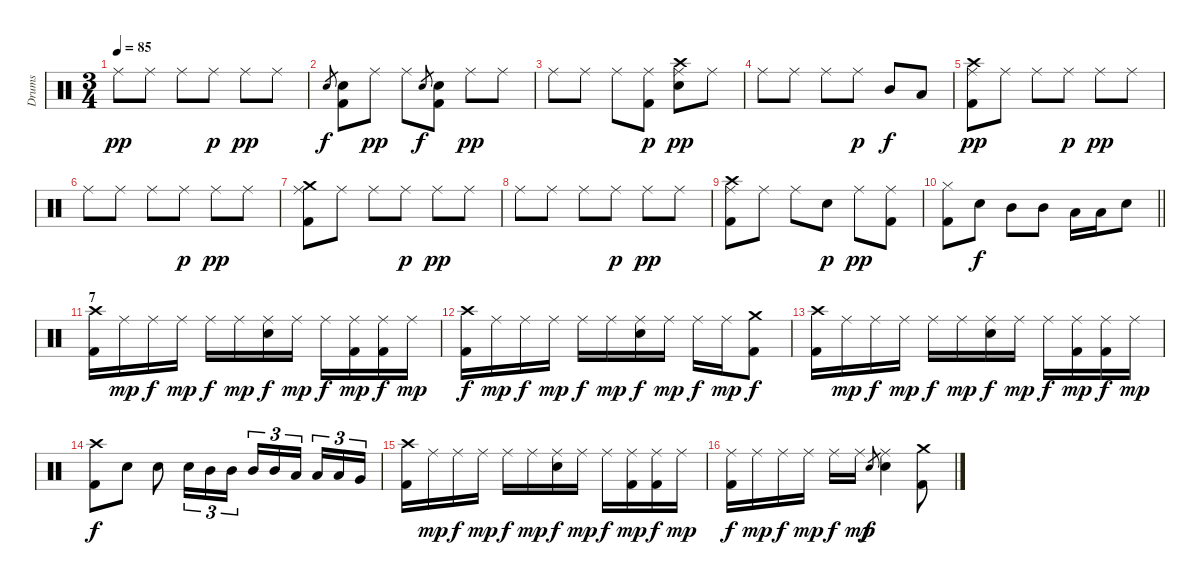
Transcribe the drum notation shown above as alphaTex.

\track ("Drums" "Drums") {instrument percussion}
\staff {score}
\articulation defaults
\ts (3 4)
\tempo 85
\clef neutral
\ks c "Ride (middle)".8{dy pp} "Ride (middle)".8 "Ride (middle)".8 "Ride (middle)".8{dy p} "Ride (middle)".8{dy pp} "Ride (middle)".8
|
"Electric Snare (hit)".8{gr dy f} ("Electric Snare (hit)" "Kick (hit) 2").8 "Ride (middle)".8{dy pp} "Ride (middle)".8 "Electric Snare (hit)".8{gr dy f} ("Electric Snare (hit)" "Kick (hit) 2").8 "Ride (middle)".8{dy pp} "Ride (middle)".8 |
"Ride (middle)".8 "Ride (middle)".8 "Ride (middle)".8 ("Ride (middle)" "Kick (hit) 2").8{dy p} ("Crash high (hit)" "Ride (middle)" "Snare (hit) 2").8{dy pp} "Ride (middle)".8 |
"Ride (middle)".8 "Ride (middle)".8 "Ride (middle)".8 "Ride (middle)".8{dy p} "Mid Tom (hit)".8{dy f} "Low Tom (hit)".8 |
("Crash high (hit)" "Ride (middle)" "Kick (hit) 2").8{dy pp} "Ride (middle)".8 "Ride (middle)".8 "Ride (middle)".8{dy p} "Ride (middle)".8{dy pp} "Ride (middle)".8 |
"Ride (middle)".8 "Ride (middle)".8 "Ride (middle)".8 "Ride (middle)".8{dy p} "Ride (middle)".8{dy pp} "Ride (middle)".8 |
("Crash medium (hit)" "Ride (middle)" "Kick (hit) 2").8 "Ride (middle)".8 "Ride (middle)".8 "Ride (middle)".8{dy p} "Ride (middle)".8{dy pp} "Ride (middle)".8 |
"Ride (middle)".8 "Ride (middle)".8 "Ride (middle)".8 "Ride (middle)".8{dy p} "Ride (middle)".8{dy pp} "Ride (middle)".8 |
("Crash high (hit)" "Ride (middle)" "Kick (hit) 2").8 "Ride (middle)".8 "Ride (middle)".8 "Electric Snare (hit)".8{dy p} "Ride (middle)".8{dy pp} ("Ride (middle)" "Kick (hit) 2").8 |
\barLineRight lightlight
("Hi-Hat (closed)" "Kick (hit) 2").8 "Electric Snare (hit)".8{dy f} "Mid Tom (hit)".8 "Mid Tom (hit)".8 "Low Tom (hit)".16 "Low Tom (hit)".16 "Electric Snare (hit)".8 |
\section ("" "7")
("Crash high (hit)" "Kick (hit) 2").16 "Ride (middle)".16{dy mp} "Ride (middle)".16{dy f} "Ride (middle)".16{dy mp} "Ride (middle)".16{dy f} "Ride (middle)".16{dy mp} ("Ride (middle)" "Electric Snare (hit)").16{dy f} "Ride (middle)".16{dy mp} "Ride (middle)".16{dy f} ("Ride (middle)" "Kick (hit) 2").16{dy mp} ("Ride (middle)" "Kick (hit) 2").16{dy f} "Ride (middle)".16{dy mp} |
("Crash high (hit)" "Kick (hit) 2").16{dy f} "Ride (middle)".16{dy mp} "Ride (middle)".16{dy f} "Ride (middle)".16{dy mp} "Ride (middle)".16{dy f} "Ride (middle)".16{dy mp} ("Ride (middle)" "Electric Snare (hit)").16{dy f} "Ride (middle)".16{dy mp} "Ride (middle)".16{dy f} "Ride (middle)".16{dy mp} ("Crash medium (hit)" "Kick (hit) 2").8{dy f} |
("Crash high (hit)" "Kick (hit) 2").16 "Ride (middle)".16{dy mp} "Ride (middle)".16{dy f} "Ride (middle)".16{dy mp} "Ride (middle)".16{dy f} "Ride (middle)".16{dy mp} ("Ride (middle)" "Electric Snare (hit)").16{dy f} "Ride (middle)".16{dy mp} "Ride (middle)".16{dy f} ("Ride (middle)" "Kick (hit) 2").16{dy mp} ("Ride (middle)" "Kick (hit) 2").16{dy f} "Ride (middle)".16{dy mp} |
("Crash high (hit)" "Kick (hit) 2").8{dy f} "Electric Snare (hit)".8 "Electric Snare (hit)".8 "Electric Snare (hit)".16{tu (3 2)} "Mid Tom (hit)".16{tu (3 2)} "Mid Tom (hit)".16{tu (3 2)} "Mid Tom (hit)".16{tu (3 2)} "Mid Tom (hit)".16{tu (3 2)} "Low Tom (hit)".16{tu (3 2) beam splitsecondary} "Low Tom (hit)".16{tu (3 2)} "Low Tom (hit)".16{tu (3 2)} "Very Low Tom (hit)".16{tu (3 2)} |
("Crash high (hit)" "Kick (hit) 2").16 "Ride (middle)".16{dy mp} "Ride (middle)".16{dy f} "Ride (middle)".16{dy mp} "Ride (middle)".16{dy f} "Ride (middle)".16{dy mp} ("Ride (middle)" "Electric Snare (hit)").16{dy f} "Ride (middle)".16{dy mp} "Ride (middle)".16{dy f} ("Ride (middle)" "Kick (hit) 2").16{dy mp} ("Ride (middle)" "Kick (hit) 2").16{dy f} "Ride (middle)".16{dy mp} |
("Ride (middle)" "Kick (hit) 2").16{dy f} "Ride (middle)".16{dy mp} "Ride (middle)".16{dy f} "Ride (middle)".16{dy mp} "Ride (middle)".16{dy f} "Ride (middle)".16{dy mp} "Electric Snare (hit)".8{gr dy f} ("Ride (middle)" "Electric Snare (hit)").4 ("Crash medium (hit)" "Kick (hit) 2").8
